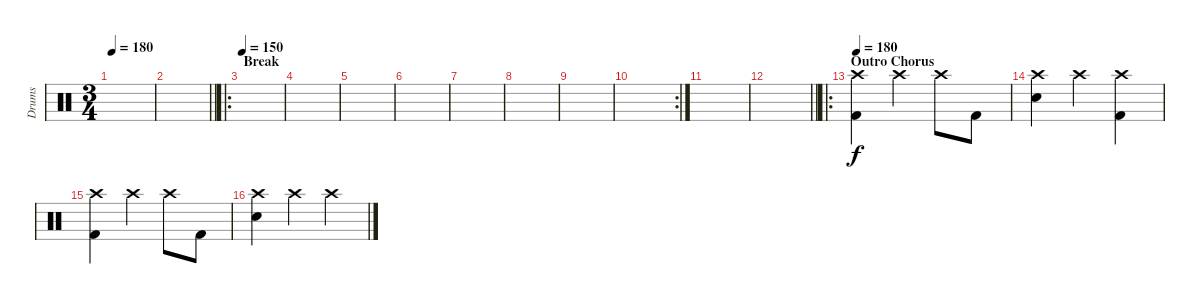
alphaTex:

\track ("Drums" "Drums") {instrument percussion}
\staff {score}
\articulation defaults
\ts (3 4)
\tempo 180
\clef neutral
\ks c
|
\barLineRight lightlight
|
\ro
\section ("" "Break")
\tempo 150
|
|
|
|
|
|
|
\rc 2
|
|
\barLineRight lightlight
|
\ro
\section ("" "Outro Chorus")
\tempo 180
("Crash high (hit)" "Kick (hit) 2").4 "Crash high (hit)".4 "Crash high (hit)".8 "Kick (hit) 2".8 |
("Crash high (hit)" "Electric Snare (hit)").4 "Crash high (hit)".4 ("Crash high (hit)" "Kick (hit) 2").4 |
("Crash high (hit)" "Kick (hit) 2").4 "Crash high (hit)".4 "Crash high (hit)".8 "Kick (hit) 2".8 |
("Crash high (hit)" "Electric Snare (hit)").4 "Crash high (hit)".4 "Crash high (hit)".4
